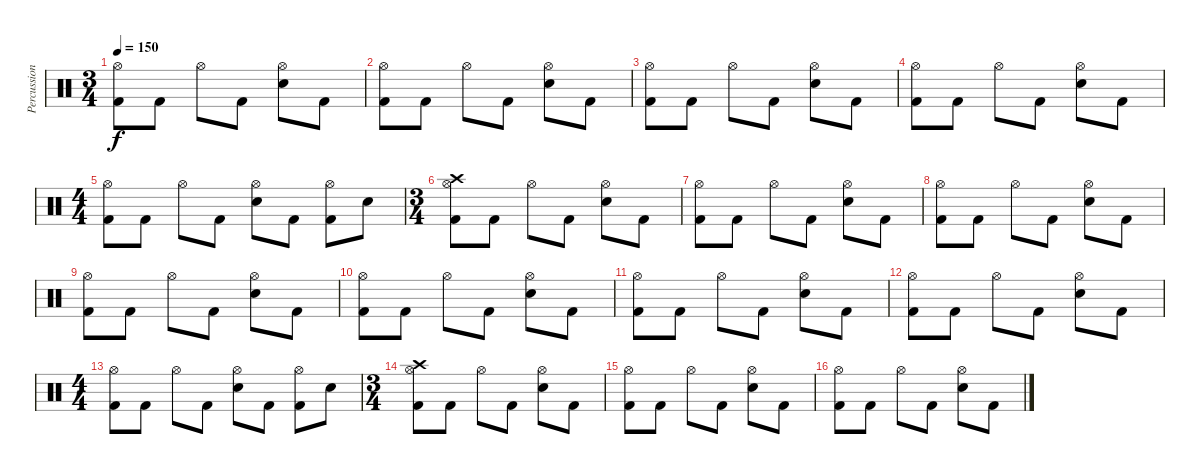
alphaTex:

\track ("Percussions" "Percussion") {instrument percussion}
\staff {score}
\articulation defaults
\ts (3 4)
\tempo 150
\clef neutral
\ks c
("Hi-Hat (open)" "Kick (hit) 2").8{dy f} "Kick (hit) 2".8 "Hi-Hat (open)".8 "Kick (hit) 2".8 ("Hi-Hat (open)" "Electric Snare (hit)").8 "Kick (hit) 2".8 |
("Hi-Hat (open)" "Kick (hit) 2").8 "Kick (hit) 2".8 "Hi-Hat (open)".8 "Kick (hit) 2".8 ("Hi-Hat (open)" "Electric Snare (hit)").8 "Kick (hit) 2".8 |
("Hi-Hat (open)" "Kick (hit) 2").8 "Kick (hit) 2".8 "Hi-Hat (open)".8 "Kick (hit) 2".8 ("Hi-Hat (open)" "Electric Snare (hit)").8 "Kick (hit) 2".8 |
("Hi-Hat (open)" "Kick (hit) 2").8 "Kick (hit) 2".8 "Hi-Hat (open)".8 "Kick (hit) 2".8 ("Hi-Hat (open)" "Electric Snare (hit)").8 "Kick (hit) 2".8 |
\ts (4 4)
("Hi-Hat (open)" "Kick (hit) 2").8 "Kick (hit) 2".8 "Hi-Hat (open)".8 "Kick (hit) 2".8 ("Hi-Hat (open)" "Electric Snare (hit)").8 "Kick (hit) 2".8 ("Hi-Hat (open)" "Kick (hit) 2").8 "Electric Snare (hit)".8 |
\ts (3 4)
("Crash high (hit)" "Hi-Hat (open)" "Kick (hit) 2").8 "Kick (hit) 2".8 "Hi-Hat (open)".8 "Kick (hit) 2".8 ("Hi-Hat (open)" "Electric Snare (hit)").8 "Kick (hit) 2".8 |
("Hi-Hat (open)" "Kick (hit) 2").8 "Kick (hit) 2".8 "Hi-Hat (open)".8 "Kick (hit) 2".8 ("Hi-Hat (open)" "Electric Snare (hit)").8 "Kick (hit) 2".8 |
("Hi-Hat (open)" "Kick (hit) 2").8 "Kick (hit) 2".8 "Hi-Hat (open)".8 "Kick (hit) 2".8 ("Hi-Hat (open)" "Electric Snare (hit)").8 "Kick (hit) 2".8 |
("Hi-Hat (open)" "Kick (hit) 2").8 "Kick (hit) 2".8 "Hi-Hat (open)".8 "Kick (hit) 2".8 ("Hi-Hat (open)" "Electric Snare (hit)").8 "Kick (hit) 2".8 |
("Hi-Hat (open)" "Kick (hit) 2").8 "Kick (hit) 2".8 "Hi-Hat (open)".8 "Kick (hit) 2".8 ("Hi-Hat (open)" "Electric Snare (hit)").8 "Kick (hit) 2".8 |
("Hi-Hat (open)" "Kick (hit) 2").8 "Kick (hit) 2".8 "Hi-Hat (open)".8 "Kick (hit) 2".8 ("Hi-Hat (open)" "Electric Snare (hit)").8 "Kick (hit) 2".8 |
("Hi-Hat (open)" "Kick (hit) 2").8 "Kick (hit) 2".8 "Hi-Hat (open)".8 "Kick (hit) 2".8 ("Hi-Hat (open)" "Electric Snare (hit)").8 "Kick (hit) 2".8 |
\ts (4 4)
("Hi-Hat (open)" "Kick (hit) 2").8 "Kick (hit) 2".8 "Hi-Hat (open)".8 "Kick (hit) 2".8 ("Hi-Hat (open)" "Electric Snare (hit)").8 "Kick (hit) 2".8 ("Hi-Hat (open)" "Kick (hit) 2").8 "Electric Snare (hit)".8 |
\ts (3 4)
("Crash high (hit)" "Hi-Hat (open)" "Kick (hit) 2").8 "Kick (hit) 2".8 "Hi-Hat (open)".8 "Kick (hit) 2".8 ("Hi-Hat (open)" "Electric Snare (hit)").8 "Kick (hit) 2".8 |
("Hi-Hat (open)" "Kick (hit) 2").8 "Kick (hit) 2".8 "Hi-Hat (open)".8 "Kick (hit) 2".8 ("Hi-Hat (open)" "Electric Snare (hit)").8 "Kick (hit) 2".8 |
("Hi-Hat (open)" "Kick (hit) 2").8 "Kick (hit) 2".8 "Hi-Hat (open)".8 "Kick (hit) 2".8 ("Hi-Hat (open)" "Electric Snare (hit)").8 "Kick (hit) 2".8
